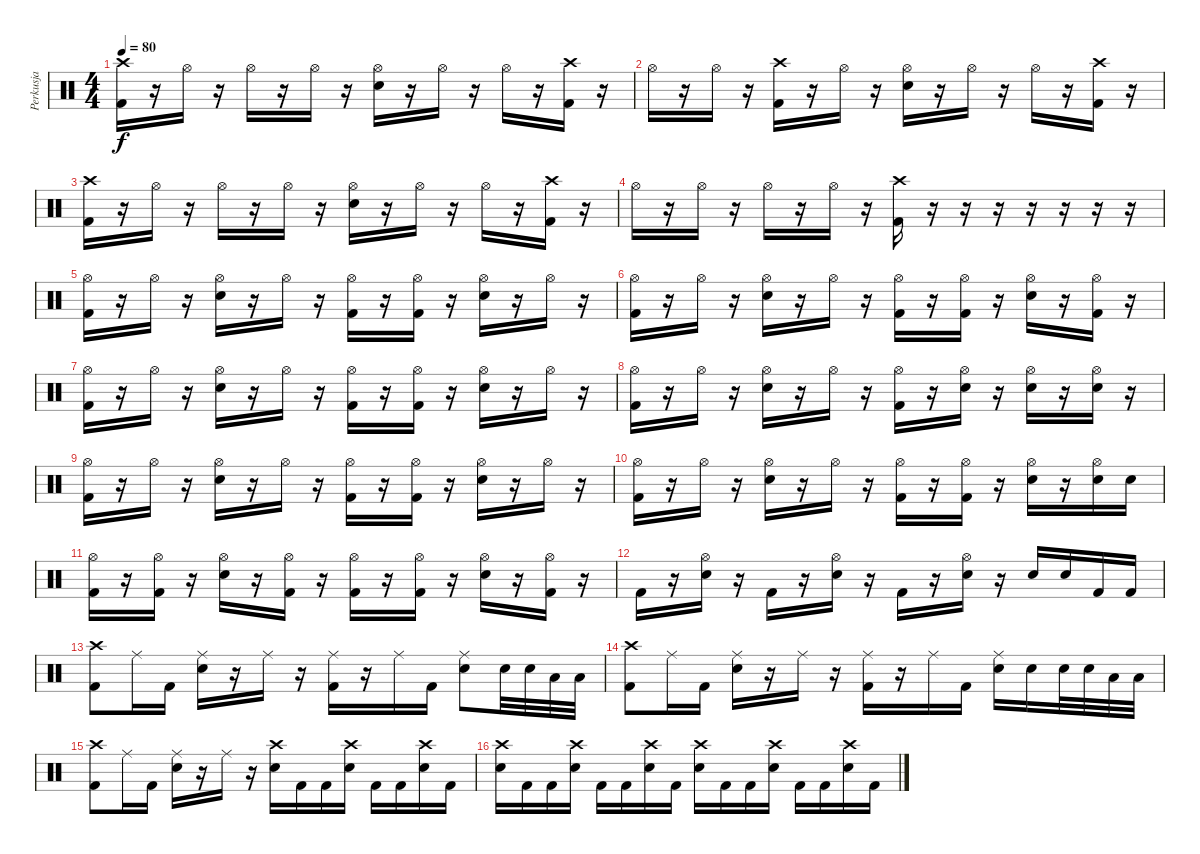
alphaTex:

\track ("Perkusja" "Perkusja") {instrument percussion}
\staff {score}
\articulation defaults
\ts (4 4)
\tempo 80
\clef neutral
\ks c
("Crash high (hit)" "Kick (hit) 2").16{dy f} r.16 "Hi-Hat (open)".16 r.16 "Hi-Hat (open)".16 r.16 "Hi-Hat (open)".16 r.16 ("Hi-Hat (open)" "Snare (hit) 2").16 r.16 "Hi-Hat (open)".16 r.16 "Hi-Hat (open)".16 r.16 ("Crash high (hit)" "Kick (hit) 2").16 r.16 |
"Hi-Hat (open)".16 r.16 "Hi-Hat (open)".16 r.16 ("Crash high (hit)" "Kick (hit) 2").16 r.16 "Hi-Hat (open)".16 r.16 ("Hi-Hat (open)" "Snare (hit) 2").16 r.16 "Hi-Hat (open)".16 r.16 "Hi-Hat (open)".16 r.16 ("Crash high (hit)" "Kick (hit) 2").16 r.16 |
("Crash high (hit)" "Kick (hit) 2").16 r.16 "Hi-Hat (open)".16 r.16 "Hi-Hat (open)".16 r.16 "Hi-Hat (open)".16 r.16 ("Hi-Hat (open)" "Snare (hit) 2").16 r.16 "Hi-Hat (open)".16 r.16 "Hi-Hat (open)".16 r.16 ("Crash high (hit)" "Kick (hit) 2").16 r.16 |
"Hi-Hat (open)".16 r.16 "Hi-Hat (open)".16 r.16 "Hi-Hat (open)".16 r.16 "Hi-Hat (open)".16 r.16 ("Crash high (hit)" "Kick (hit) 2").16 r.16 r.16 r.16 r.16 r.16 r.16 r.16 |
("Hi-Hat (open)" "Kick (hit) 2").16 r.16 "Hi-Hat (open)".16 r.16 ("Hi-Hat (open)" "Snare (hit) 2").16 r.16 "Hi-Hat (open)".16 r.16 ("Hi-Hat (open)" "Kick (hit) 2").16 r.16 ("Hi-Hat (open)" "Kick (hit) 2").16 r.16 ("Hi-Hat (open)" "Snare (hit) 2").16 r.16 "Hi-Hat (open)".16 r.16 |
("Hi-Hat (open)" "Kick (hit) 2").16 r.16 "Hi-Hat (open)".16 r.16 ("Hi-Hat (open)" "Snare (hit) 2").16 r.16 "Hi-Hat (open)".16 r.16 ("Hi-Hat (open)" "Kick (hit) 2").16 r.16 ("Hi-Hat (open)" "Kick (hit) 2").16 r.16 ("Hi-Hat (open)" "Snare (hit) 2").16 r.16 ("Hi-Hat (open)" "Kick (hit) 2").16 r.16 |
("Hi-Hat (open)" "Kick (hit) 2").16 r.16 "Hi-Hat (open)".16 r.16 ("Hi-Hat (open)" "Snare (hit) 2").16 r.16 "Hi-Hat (open)".16 r.16 ("Hi-Hat (open)" "Kick (hit) 2").16 r.16 ("Hi-Hat (open)" "Kick (hit) 2").16 r.16 ("Hi-Hat (open)" "Snare (hit) 2").16 r.16 "Hi-Hat (open)".16 r.16 |
("Hi-Hat (open)" "Kick (hit) 2").16 r.16 "Hi-Hat (open)".16 r.16 ("Hi-Hat (open)" "Snare (hit) 2").16 r.16 "Hi-Hat (open)".16 r.16 ("Hi-Hat (open)" "Kick (hit) 2").16 r.16 ("Hi-Hat (open)" "Snare (hit) 2").16 r.16 ("Hi-Hat (open)" "Snare (hit) 2").16 r.16 ("Hi-Hat (open)" "Snare (hit) 2").16 r.16 |
("Hi-Hat (open)" "Kick (hit) 2").16 r.16 "Hi-Hat (open)".16 r.16 ("Hi-Hat (open)" "Snare (hit) 2").16 r.16 "Hi-Hat (open)".16 r.16 ("Hi-Hat (open)" "Kick (hit) 2").16 r.16 ("Hi-Hat (open)" "Kick (hit) 2").16 r.16 ("Hi-Hat (open)" "Snare (hit) 2").16 r.16 "Hi-Hat (open)".16 r.16 |
("Hi-Hat (open)" "Kick (hit) 2").16 r.16 "Hi-Hat (open)".16 r.16 ("Hi-Hat (open)" "Snare (hit) 2").16 r.16 "Hi-Hat (open)".16 r.16 ("Hi-Hat (open)" "Kick (hit) 2").16 r.16 ("Hi-Hat (open)" "Kick (hit) 2").16 r.16 ("Hi-Hat (open)" "Snare (hit) 2").16 r.16 ("Hi-Hat (open)" "Snare (hit) 2").16 "Snare (hit) 2".16 |
("Hi-Hat (open)" "Kick (hit) 2").16 r.16 ("Hi-Hat (open)" "Kick (hit) 2").16 r.16 ("Hi-Hat (open)" "Snare (hit) 2").16 r.16 ("Hi-Hat (open)" "Kick (hit) 2").16 r.16 ("Hi-Hat (open)" "Kick (hit) 2").16 r.16 ("Hi-Hat (open)" "Kick (hit) 2").16 r.16 ("Hi-Hat (open)" "Snare (hit) 2").16 r.16 ("Hi-Hat (open)" "Kick (hit) 2").16 r.16 |
"Kick (hit) 2".16 r.16 ("Hi-Hat (open)" "Snare (hit) 2").16 r.16 "Kick (hit) 2".16 r.16 ("Hi-Hat (open)" "Snare (hit) 2").16 r.16 "Kick (hit) 2".16 r.16 ("Hi-Hat (open)" "Snare (hit) 2").16 r.16 "Snare (hit) 2".16 "Snare (hit) 2".16 "Kick (hit) 2".16 "Kick (hit) 2".16 |
("Crash high (hit)" "Kick (hit) 2").8 "Ride (middle)".16 "Kick (hit) 2".16 ("Ride (middle)" "Snare (hit) 2").16 r.16 "Ride (middle)".16 r.16 ("Ride (middle)" "Kick (hit) 2").16 r.16 "Ride (middle)".16 "Kick (hit) 2".16 ("Ride (middle)" "Snare (hit) 2").8 "Snare (hit) 2".32 "Snare (hit) 2".32 "Low Floor Tom (hit)".32 "Low Floor Tom (hit)".32 |
("Crash high (hit)" "Kick (hit) 2").8 "Ride (middle)".16 "Kick (hit) 2".16 ("Ride (middle)" "Snare (hit) 2").16 r.16 "Ride (middle)".16 r.16 ("Ride (middle)" "Kick (hit) 2").16 r.16 "Ride (middle)".16 "Kick (hit) 2".16 ("Ride (middle)" "Snare (hit) 2").16 "Snare (hit) 2".16 "Snare (hit) 2".32 "Snare (hit) 2".32 "Low Floor Tom (hit)".32 "Low Floor Tom (hit)".32 |
("Crash high (hit)" "Kick (hit) 2").8 "Ride (middle)".16 "Kick (hit) 2".16 ("Ride (middle)" "Snare (hit) 2").16 r.16 "Ride (middle)".16 r.16 ("Crash high (hit)" "Snare (hit) 2").16 "Kick (hit) 2".16 "Kick (hit) 2".16 ("Crash high (hit)" "Snare (hit) 2").16 "Kick (hit) 2".16 "Kick (hit) 2".16 ("Crash high (hit)" "Snare (hit) 2").16 "Kick (hit) 2".16 |
("Crash high (hit)" "Snare (hit) 2").16 "Kick (hit) 2".16 "Kick (hit) 2".16 ("Crash high (hit)" "Snare (hit) 2").16 "Kick (hit) 2".16 "Kick (hit) 2".16 ("Crash high (hit)" "Snare (hit) 2").16 "Kick (hit) 2".16 ("Crash high (hit)" "Snare (hit) 2").16 "Kick (hit) 2".16 "Kick (hit) 2".16 ("Crash high (hit)" "Snare (hit) 2").16 "Kick (hit) 2".16 "Kick (hit) 2".16 ("Crash high (hit)" "Snare (hit) 2").16 "Kick (hit) 2".16
